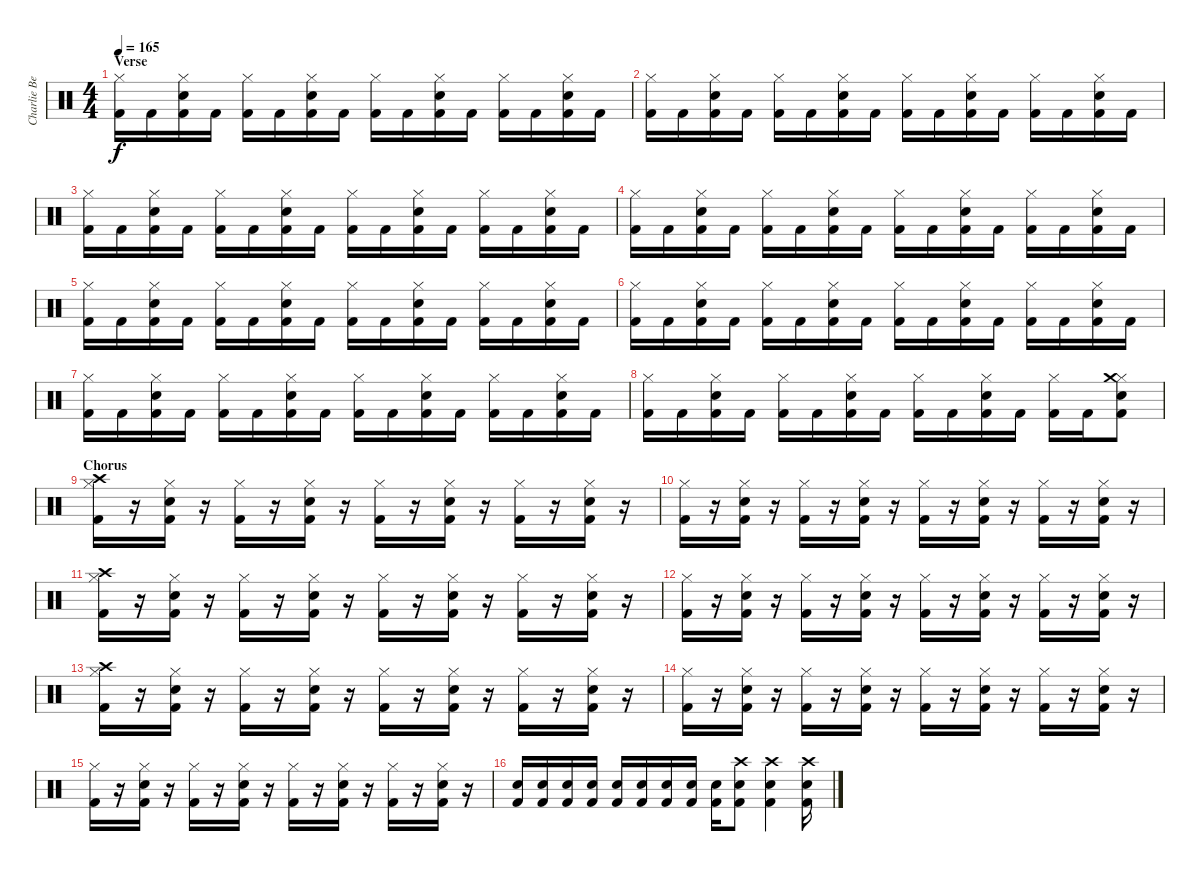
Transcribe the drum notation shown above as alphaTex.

\track ("Charlie Benante" "Charlie Be") {instrument percussion}
\staff {score}
\articulation defaults
\ts (4 4)
\section ("" "Verse")
\tempo 165
\clef neutral
\ks c
("Kick (hit) 2" "Hi-Hat (closed)").16{dy f} "Kick (hit) 2".16 ("Kick (hit) 2" "Hi-Hat (closed)" "Electric Snare (hit)").16 "Kick (hit) 2".16 ("Kick (hit) 2" "Hi-Hat (closed)").16 "Kick (hit) 2".16 ("Kick (hit) 2" "Hi-Hat (closed)" "Electric Snare (hit)").16 "Kick (hit) 2".16 ("Kick (hit) 2" "Hi-Hat (closed)").16 "Kick (hit) 2".16 ("Kick (hit) 2" "Hi-Hat (closed)" "Electric Snare (hit)").16 "Kick (hit) 2".16 ("Kick (hit) 2" "Hi-Hat (closed)").16 "Kick (hit) 2".16 ("Kick (hit) 2" "Hi-Hat (closed)" "Electric Snare (hit)").16 "Kick (hit) 2".16 |
("Kick (hit) 2" "Hi-Hat (closed)").16 "Kick (hit) 2".16 ("Kick (hit) 2" "Hi-Hat (closed)" "Electric Snare (hit)").16 "Kick (hit) 2".16 ("Kick (hit) 2" "Hi-Hat (closed)").16 "Kick (hit) 2".16 ("Kick (hit) 2" "Hi-Hat (closed)" "Electric Snare (hit)").16 "Kick (hit) 2".16 ("Kick (hit) 2" "Hi-Hat (closed)").16 "Kick (hit) 2".16 ("Kick (hit) 2" "Hi-Hat (closed)" "Electric Snare (hit)").16 "Kick (hit) 2".16 ("Kick (hit) 2" "Hi-Hat (closed)").16 "Kick (hit) 2".16 ("Kick (hit) 2" "Hi-Hat (closed)" "Electric Snare (hit)").16 "Kick (hit) 2".16 |
("Kick (hit) 2" "Hi-Hat (closed)").16 "Kick (hit) 2".16 ("Kick (hit) 2" "Hi-Hat (closed)" "Electric Snare (hit)").16 "Kick (hit) 2".16 ("Kick (hit) 2" "Hi-Hat (closed)").16 "Kick (hit) 2".16 ("Kick (hit) 2" "Hi-Hat (closed)" "Electric Snare (hit)").16 "Kick (hit) 2".16 ("Kick (hit) 2" "Hi-Hat (closed)").16 "Kick (hit) 2".16 ("Kick (hit) 2" "Hi-Hat (closed)" "Electric Snare (hit)").16 "Kick (hit) 2".16 ("Kick (hit) 2" "Hi-Hat (closed)").16 "Kick (hit) 2".16 ("Kick (hit) 2" "Hi-Hat (closed)" "Electric Snare (hit)").16 "Kick (hit) 2".16 |
("Kick (hit) 2" "Hi-Hat (closed)").16 "Kick (hit) 2".16 ("Kick (hit) 2" "Hi-Hat (closed)" "Electric Snare (hit)").16 "Kick (hit) 2".16 ("Kick (hit) 2" "Hi-Hat (closed)").16 "Kick (hit) 2".16 ("Kick (hit) 2" "Hi-Hat (closed)" "Electric Snare (hit)").16 "Kick (hit) 2".16 ("Kick (hit) 2" "Hi-Hat (closed)").16 "Kick (hit) 2".16 ("Kick (hit) 2" "Hi-Hat (closed)" "Electric Snare (hit)").16 "Kick (hit) 2".16 ("Kick (hit) 2" "Hi-Hat (closed)").16 "Kick (hit) 2".16 ("Kick (hit) 2" "Hi-Hat (closed)" "Electric Snare (hit)").16 "Kick (hit) 2".16 |
("Kick (hit) 2" "Hi-Hat (closed)").16 "Kick (hit) 2".16 ("Kick (hit) 2" "Hi-Hat (closed)" "Electric Snare (hit)").16 "Kick (hit) 2".16 ("Kick (hit) 2" "Hi-Hat (closed)").16 "Kick (hit) 2".16 ("Kick (hit) 2" "Hi-Hat (closed)" "Electric Snare (hit)").16 "Kick (hit) 2".16 ("Kick (hit) 2" "Hi-Hat (closed)").16 "Kick (hit) 2".16 ("Kick (hit) 2" "Hi-Hat (closed)" "Electric Snare (hit)").16 "Kick (hit) 2".16 ("Kick (hit) 2" "Hi-Hat (closed)").16 "Kick (hit) 2".16 ("Kick (hit) 2" "Hi-Hat (closed)" "Electric Snare (hit)").16 "Kick (hit) 2".16 |
("Kick (hit) 2" "Hi-Hat (closed)").16 "Kick (hit) 2".16 ("Kick (hit) 2" "Hi-Hat (closed)" "Electric Snare (hit)").16 "Kick (hit) 2".16 ("Kick (hit) 2" "Hi-Hat (closed)").16 "Kick (hit) 2".16 ("Kick (hit) 2" "Hi-Hat (closed)" "Electric Snare (hit)").16 "Kick (hit) 2".16 ("Kick (hit) 2" "Hi-Hat (closed)").16 "Kick (hit) 2".16 ("Kick (hit) 2" "Hi-Hat (closed)" "Electric Snare (hit)").16 "Kick (hit) 2".16 ("Kick (hit) 2" "Hi-Hat (closed)").16 "Kick (hit) 2".16 ("Kick (hit) 2" "Hi-Hat (closed)" "Electric Snare (hit)").16 "Kick (hit) 2".16 |
("Kick (hit) 2" "Hi-Hat (closed)").16 "Kick (hit) 2".16 ("Kick (hit) 2" "Hi-Hat (closed)" "Electric Snare (hit)").16 "Kick (hit) 2".16 ("Kick (hit) 2" "Hi-Hat (closed)").16 "Kick (hit) 2".16 ("Kick (hit) 2" "Hi-Hat (closed)" "Electric Snare (hit)").16 "Kick (hit) 2".16 ("Kick (hit) 2" "Hi-Hat (closed)").16 "Kick (hit) 2".16 ("Kick (hit) 2" "Hi-Hat (closed)" "Electric Snare (hit)").16 "Kick (hit) 2".16 ("Kick (hit) 2" "Hi-Hat (closed)").16 "Kick (hit) 2".16 ("Kick (hit) 2" "Hi-Hat (closed)" "Electric Snare (hit)").16 "Kick (hit) 2".16 |
("Kick (hit) 2" "Hi-Hat (closed)").16 "Kick (hit) 2".16 ("Kick (hit) 2" "Hi-Hat (closed)" "Electric Snare (hit)").16 "Kick (hit) 2".16 ("Kick (hit) 2" "Hi-Hat (closed)").16 "Kick (hit) 2".16 ("Kick (hit) 2" "Hi-Hat (closed)" "Electric Snare (hit)").16 "Kick (hit) 2".16 ("Kick (hit) 2" "Hi-Hat (closed)").16 "Kick (hit) 2".16 ("Kick (hit) 2" "Hi-Hat (closed)" "Electric Snare (hit)").16 "Kick (hit) 2".16 ("Kick (hit) 2" "Hi-Hat (closed)").16 "Kick (hit) 2".16 ("Kick (hit) 2" "Hi-Hat (closed)" "Electric Snare (hit)" "Crash medium (hit)").8 |
\section ("" "Chorus")
("Kick (hit) 2" "Hi-Hat (closed)" "Crash high (hit)").16 r.16 ("Kick (hit) 2" "Hi-Hat (closed)" "Electric Snare (hit)").16 r.16 ("Kick (hit) 2" "Hi-Hat (closed)").16 r.16 ("Kick (hit) 2" "Hi-Hat (closed)" "Electric Snare (hit)").16 r.16 ("Kick (hit) 2" "Hi-Hat (closed)").16 r.16 ("Kick (hit) 2" "Hi-Hat (closed)" "Electric Snare (hit)").16 r.16 ("Kick (hit) 2" "Hi-Hat (closed)").16 r.16 ("Kick (hit) 2" "Hi-Hat (closed)" "Electric Snare (hit)").16 r.16 |
("Kick (hit) 2" "Hi-Hat (closed)").16 r.16 ("Kick (hit) 2" "Hi-Hat (closed)" "Electric Snare (hit)").16 r.16 ("Kick (hit) 2" "Hi-Hat (closed)").16 r.16 ("Kick (hit) 2" "Hi-Hat (closed)" "Electric Snare (hit)").16 r.16 ("Kick (hit) 2" "Hi-Hat (closed)").16 r.16 ("Kick (hit) 2" "Hi-Hat (closed)" "Electric Snare (hit)").16 r.16 ("Kick (hit) 2" "Hi-Hat (closed)").16 r.16 ("Kick (hit) 2" "Hi-Hat (closed)" "Electric Snare (hit)").16 r.16 |
("Kick (hit) 2" "Hi-Hat (closed)" "Crash high (hit)").16 r.16 ("Kick (hit) 2" "Hi-Hat (closed)" "Electric Snare (hit)").16 r.16 ("Kick (hit) 2" "Hi-Hat (closed)").16 r.16 ("Kick (hit) 2" "Hi-Hat (closed)" "Electric Snare (hit)").16 r.16 ("Kick (hit) 2" "Hi-Hat (closed)").16 r.16 ("Kick (hit) 2" "Hi-Hat (closed)" "Electric Snare (hit)").16 r.16 ("Kick (hit) 2" "Hi-Hat (closed)").16 r.16 ("Kick (hit) 2" "Hi-Hat (closed)" "Electric Snare (hit)").16 r.16 |
("Kick (hit) 2" "Hi-Hat (closed)").16 r.16 ("Kick (hit) 2" "Hi-Hat (closed)" "Electric Snare (hit)").16 r.16 ("Kick (hit) 2" "Hi-Hat (closed)").16 r.16 ("Kick (hit) 2" "Hi-Hat (closed)" "Electric Snare (hit)").16 r.16 ("Kick (hit) 2" "Hi-Hat (closed)").16 r.16 ("Kick (hit) 2" "Hi-Hat (closed)" "Electric Snare (hit)").16 r.16 ("Kick (hit) 2" "Hi-Hat (closed)").16 r.16 ("Kick (hit) 2" "Hi-Hat (closed)" "Electric Snare (hit)").16 r.16 |
("Kick (hit) 2" "Hi-Hat (closed)" "Crash high (hit)").16 r.16 ("Kick (hit) 2" "Hi-Hat (closed)" "Electric Snare (hit)").16 r.16 ("Kick (hit) 2" "Hi-Hat (closed)").16 r.16 ("Kick (hit) 2" "Hi-Hat (closed)" "Electric Snare (hit)").16 r.16 ("Kick (hit) 2" "Hi-Hat (closed)").16 r.16 ("Kick (hit) 2" "Hi-Hat (closed)" "Electric Snare (hit)").16 r.16 ("Kick (hit) 2" "Hi-Hat (closed)").16 r.16 ("Kick (hit) 2" "Hi-Hat (closed)" "Electric Snare (hit)").16 r.16 |
("Kick (hit) 2" "Hi-Hat (closed)").16 r.16 ("Kick (hit) 2" "Hi-Hat (closed)" "Electric Snare (hit)").16 r.16 ("Kick (hit) 2" "Hi-Hat (closed)").16 r.16 ("Kick (hit) 2" "Hi-Hat (closed)" "Electric Snare (hit)").16 r.16 ("Kick (hit) 2" "Hi-Hat (closed)").16 r.16 ("Kick (hit) 2" "Hi-Hat (closed)" "Electric Snare (hit)").16 r.16 ("Kick (hit) 2" "Hi-Hat (closed)").16 r.16 ("Kick (hit) 2" "Hi-Hat (closed)" "Electric Snare (hit)").16 r.16 |
("Kick (hit) 2" "Hi-Hat (closed)").16 r.16 ("Kick (hit) 2" "Hi-Hat (closed)" "Electric Snare (hit)").16 r.16 ("Kick (hit) 2" "Hi-Hat (closed)").16 r.16 ("Kick (hit) 2" "Hi-Hat (closed)" "Electric Snare (hit)").16 r.16 ("Kick (hit) 2" "Hi-Hat (closed)").16 r.16 ("Kick (hit) 2" "Hi-Hat (closed)" "Electric Snare (hit)").16 r.16 ("Kick (hit) 2" "Hi-Hat (closed)").16 r.16 ("Kick (hit) 2" "Hi-Hat (closed)" "Electric Snare (hit)").16 r.16 |
("Electric Snare (hit)" "Kick (hit) 2").16 ("Electric Snare (hit)" "Kick (hit) 2").16 ("Electric Snare (hit)" "Kick (hit) 2").16 ("Electric Snare (hit)" "Kick (hit) 2").16 ("Electric Snare (hit)" "Kick (hit) 2").16 ("Electric Snare (hit)" "Kick (hit) 2").16 ("Electric Snare (hit)" "Kick (hit) 2").16 ("Electric Snare (hit)" "Kick (hit) 2").16 ("Electric Snare (hit)" "Kick (hit) 2").16 ("Crash high (hit)" "Electric Snare (hit)" "Kick (hit) 2").8 ("Crash high (hit)" "Kick (hit) 2" "Electric Snare (hit)").4 ("Crash high (hit)" "Kick (hit) 2" "Electric Snare (hit)").16
